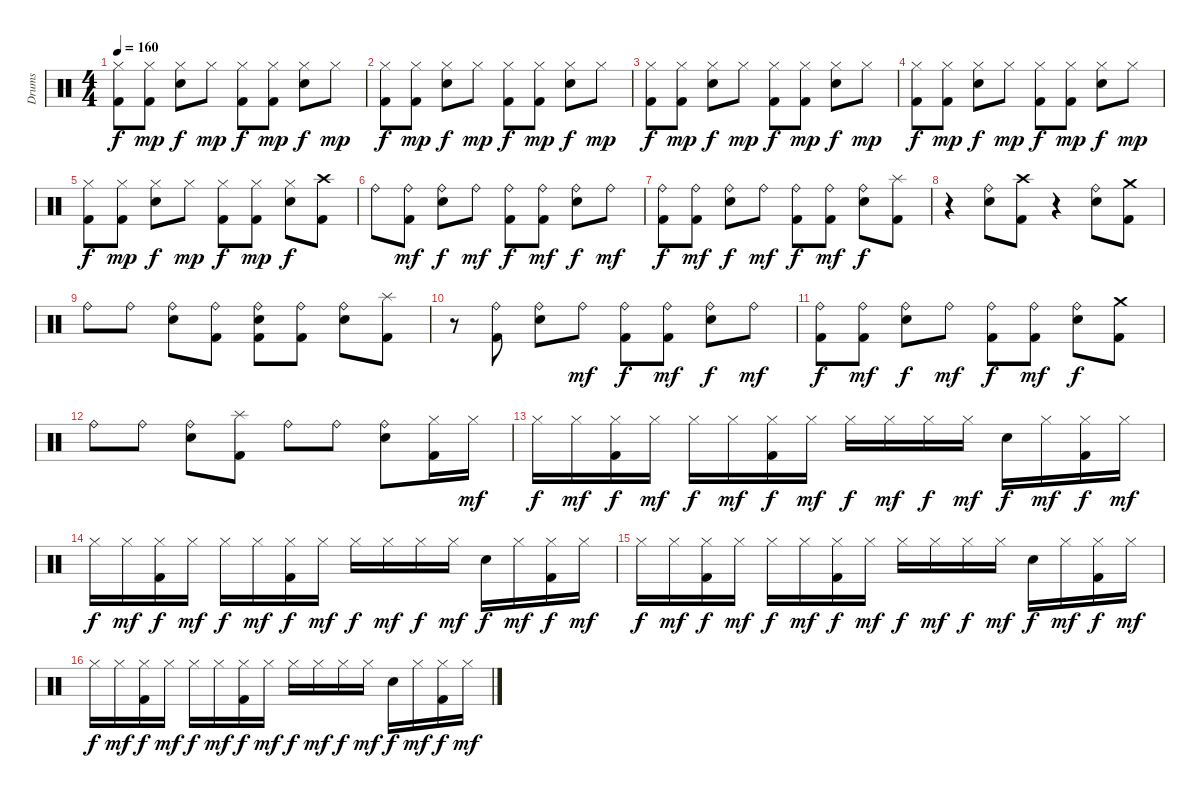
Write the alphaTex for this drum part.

\track ("Drums" "Drums") {instrument percussion}
\staff {score}
\articulation defaults
\ts (4 4)
\tempo 160
\clef neutral
\ks c
("Kick (hit) 2" "Hi-Hat (closed)").8{dy f} ("Kick (hit) 2" "Hi-Hat (closed)").8{dy mp} ("Snare (hit) 2" "Hi-Hat (closed)").8{dy f} "Hi-Hat (closed)".8{dy mp} ("Kick (hit) 2" "Hi-Hat (closed)").8{dy f} ("Kick (hit) 2" "Hi-Hat (closed)").8{dy mp} ("Snare (hit) 2" "Hi-Hat (closed)").8{dy f} "Hi-Hat (closed)".8{dy mp} |
("Kick (hit) 2" "Hi-Hat (closed)").8{dy f} ("Kick (hit) 2" "Hi-Hat (closed)").8{dy mp} ("Snare (hit) 2" "Hi-Hat (closed)").8{dy f} "Hi-Hat (closed)".8{dy mp} ("Kick (hit) 2" "Hi-Hat (closed)").8{dy f} ("Kick (hit) 2" "Hi-Hat (closed)").8{dy mp} ("Snare (hit) 2" "Hi-Hat (closed)").8{dy f} "Hi-Hat (closed)".8{dy mp} |
("Kick (hit) 2" "Hi-Hat (closed)").8{dy f} ("Kick (hit) 2" "Hi-Hat (closed)").8{dy mp} ("Snare (hit) 2" "Hi-Hat (closed)").8{dy f} "Hi-Hat (closed)".8{dy mp} ("Kick (hit) 2" "Hi-Hat (closed)").8{dy f} ("Kick (hit) 2" "Hi-Hat (closed)").8{dy mp} ("Snare (hit) 2" "Hi-Hat (closed)").8{dy f} "Hi-Hat (closed)".8{dy mp} |
("Kick (hit) 2" "Hi-Hat (closed)").8{dy f} ("Kick (hit) 2" "Hi-Hat (closed)").8{dy mp} ("Snare (hit) 2" "Hi-Hat (closed)").8{dy f} "Hi-Hat (closed)".8{dy mp} ("Kick (hit) 2" "Hi-Hat (closed)").8{dy f} ("Kick (hit) 2" "Hi-Hat (closed)").8{dy mp} ("Snare (hit) 2" "Hi-Hat (closed)").8{dy f} "Hi-Hat (closed)".8{dy mp} |
("Kick (hit) 2" "Hi-Hat (closed)").8{dy f} ("Kick (hit) 2" "Hi-Hat (closed)").8{dy mp} ("Snare (hit) 2" "Hi-Hat (closed)").8{dy f} "Hi-Hat (closed)".8{dy mp} ("Kick (hit) 2" "Hi-Hat (closed)").8{dy f} ("Kick (hit) 2" "Hi-Hat (closed)").8{dy mp} ("Snare (hit) 2" "Hi-Hat (closed)").8{dy f} ("Kick (hit) 2" "Crash high (hit)").8 |
"Ride (bell)".8 ("Kick (hit) 2" "Ride (bell)").8{dy mf} ("Snare (hit) 2" "Ride (bell)").8{dy f} "Ride (bell)".8{dy mf} ("Kick (hit) 2" "Ride (bell)").8{dy f} ("Kick (hit) 2" "Ride (bell)").8{dy mf} ("Snare (hit) 2" "Ride (bell)").8{dy f} "Ride (bell)".8{dy mf} |
("Kick (hit) 2" "Ride (bell)").8{dy f} ("Kick (hit) 2" "Ride (bell)").8{dy mf} ("Snare (hit) 2" "Ride (bell)").8{dy f} "Ride (bell)".8{dy mf} ("Kick (hit) 2" "Ride (bell)").8{dy f} ("Kick (hit) 2" "Ride (bell)").8{dy mf} ("Snare (hit) 2" "Ride (bell)").8{dy f} ("Kick (hit) 2" "Splash (hit)").8 |
r.4 ("Snare (hit) 2" "Ride (bell)").8 ("Kick (hit) 2" "Crash high (hit)").8 r.4 ("Snare (hit) 2" "Ride (bell)").8 ("Kick (hit) 2" "Crash medium (hit)").8 |
"Ride (bell)".8 "Ride (bell)".8 ("Snare (hit) 2" "Ride (bell)").8 ("Kick (hit) 2" "Ride (bell)").8 ("Kick (hit) 2" "Snare (hit) 2" "Ride (bell)").8 ("Kick (hit) 2" "Ride (bell)").8 ("Snare (hit) 2" "Ride (bell)").8 ("Kick (hit) 2" "Splash (hit)").8 |
r.8 ("Kick (hit) 2" "Ride (bell)").8 ("Snare (hit) 2" "Ride (bell)").8 "Ride (bell)".8{dy mf} ("Kick (hit) 2" "Ride (bell)").8{dy f} ("Kick (hit) 2" "Ride (bell)").8{dy mf} ("Snare (hit) 2" "Ride (bell)").8{dy f} "Ride (bell)".8{dy mf} |
("Kick (hit) 2" "Ride (bell)").8{dy f} ("Kick (hit) 2" "Ride (bell)").8{dy mf} ("Snare (hit) 2" "Ride (bell)").8{dy f} "Ride (bell)".8{dy mf} ("Kick (hit) 2" "Ride (bell)").8{dy f} ("Kick (hit) 2" "Ride (bell)").8{dy mf} ("Snare (hit) 2" "Ride (bell)").8{dy f} ("Kick (hit) 2" "Crash medium (hit)").8 |
"Ride (bell)".8 "Ride (bell)".8 ("Snare (hit) 2" "Ride (bell)").8 ("Kick (hit) 2" "Splash (hit)").8 "Ride (bell)".8 "Ride (bell)".8 ("Snare (hit) 2" "Ride (bell)").8 ("Kick (hit) 2" "Hi-Hat (closed)").16 "Hi-Hat (closed)".16{dy mf} |
"Hi-Hat (closed)".16{dy f} "Hi-Hat (closed)".16{dy mf} ("Kick (hit) 2" "Hi-Hat (closed)").16{dy f} "Hi-Hat (closed)".16{dy mf} "Hi-Hat (closed)".16{dy f} "Hi-Hat (closed)".16{dy mf} ("Kick (hit) 2" "Hi-Hat (closed)").16{dy f} "Hi-Hat (closed)".16{dy mf} "Hi-Hat (closed)".16{dy f} "Hi-Hat (closed)".16{dy mf} "Hi-Hat (closed)".16{dy f} "Hi-Hat (closed)".16{dy mf} "Snare (hit) 2".16{dy f} "Hi-Hat (closed)".16{dy mf} ("Kick (hit) 2" "Hi-Hat (closed)").16{dy f} "Hi-Hat (closed)".16{dy mf} |
"Hi-Hat (closed)".16{dy f} "Hi-Hat (closed)".16{dy mf} ("Kick (hit) 2" "Hi-Hat (closed)").16{dy f} "Hi-Hat (closed)".16{dy mf} "Hi-Hat (closed)".16{dy f} "Hi-Hat (closed)".16{dy mf} ("Kick (hit) 2" "Hi-Hat (closed)").16{dy f} "Hi-Hat (closed)".16{dy mf} "Hi-Hat (closed)".16{dy f} "Hi-Hat (closed)".16{dy mf} "Hi-Hat (closed)".16{dy f} "Hi-Hat (closed)".16{dy mf} "Snare (hit) 2".16{dy f} "Hi-Hat (closed)".16{dy mf} ("Kick (hit) 2" "Hi-Hat (closed)").16{dy f} "Hi-Hat (closed)".16{dy mf} |
"Hi-Hat (closed)".16{dy f} "Hi-Hat (closed)".16{dy mf} ("Kick (hit) 2" "Hi-Hat (closed)").16{dy f} "Hi-Hat (closed)".16{dy mf} "Hi-Hat (closed)".16{dy f} "Hi-Hat (closed)".16{dy mf} ("Kick (hit) 2" "Hi-Hat (closed)").16{dy f} "Hi-Hat (closed)".16{dy mf} "Hi-Hat (closed)".16{dy f} "Hi-Hat (closed)".16{dy mf} "Hi-Hat (closed)".16{dy f} "Hi-Hat (closed)".16{dy mf} "Snare (hit) 2".16{dy f} "Hi-Hat (closed)".16{dy mf} ("Kick (hit) 2" "Hi-Hat (closed)").16{dy f} "Hi-Hat (closed)".16{dy mf} |
"Hi-Hat (closed)".16{dy f} "Hi-Hat (closed)".16{dy mf} ("Kick (hit) 2" "Hi-Hat (closed)").16{dy f} "Hi-Hat (closed)".16{dy mf} "Hi-Hat (closed)".16{dy f} "Hi-Hat (closed)".16{dy mf} ("Kick (hit) 2" "Hi-Hat (closed)").16{dy f} "Hi-Hat (closed)".16{dy mf} "Hi-Hat (closed)".16{dy f} "Hi-Hat (closed)".16{dy mf} "Hi-Hat (closed)".16{dy f} "Hi-Hat (closed)".16{dy mf} "Snare (hit) 2".16{dy f} "Hi-Hat (closed)".16{dy mf} ("Kick (hit) 2" "Hi-Hat (closed)").16{dy f} "Hi-Hat (closed)".16{dy mf}
